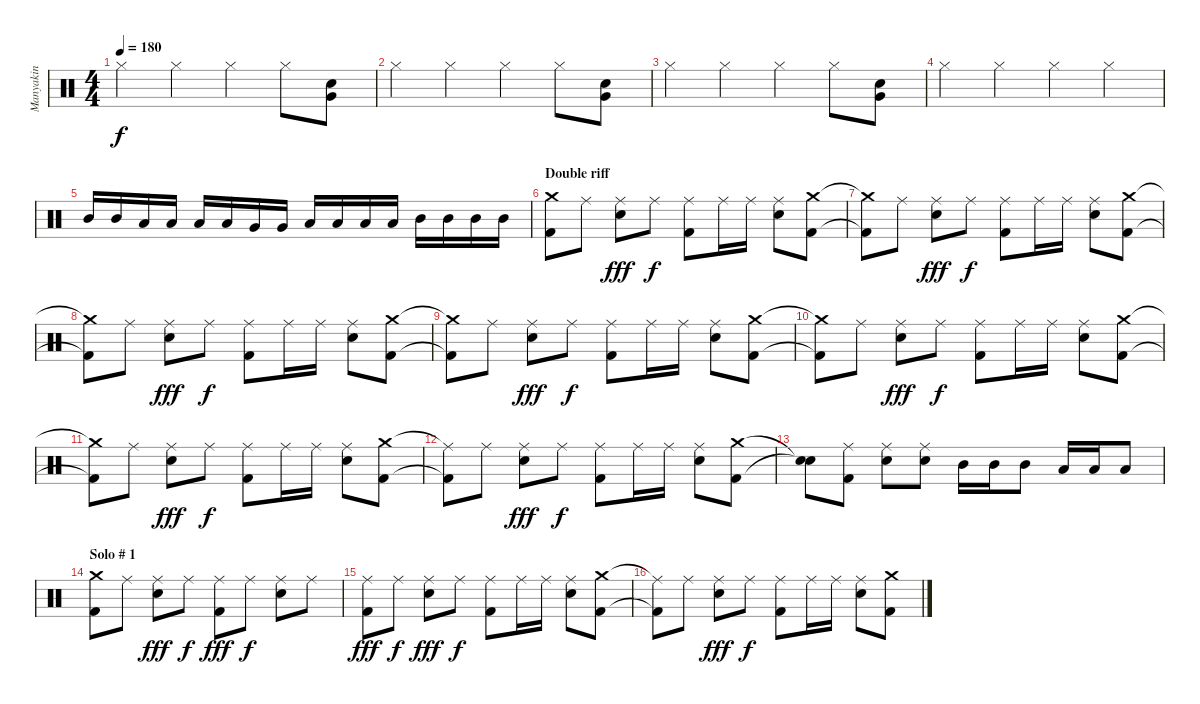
\track ("Manyakin" "Manyakin") {instrument percussion}
\staff {score}
\articulation defaults
\ts (4 4)
\tempo 180
\clef neutral
\ks c "Hi-Hat (closed)".4{dy f} "Hi-Hat (closed)".4 "Hi-Hat (closed)".4 "Hi-Hat (closed)".8
("Snare (hit) 2" "Very Low Tom (hit)").8 |
"Hi-Hat (closed)".4 "Hi-Hat (closed)".4 "Hi-Hat (closed)".4 "Hi-Hat (closed)".8 ("Snare (hit) 2" "Very Low Tom (hit)").8 |
"Hi-Hat (closed)".4 "Hi-Hat (closed)".4 "Hi-Hat (closed)".4 "Hi-Hat (closed)".8 ("Snare (hit) 2" "Very Low Tom (hit)").8 |
"Hi-Hat (closed)".4 "Hi-Hat (closed)".4 "Hi-Hat (closed)".4 "Hi-Hat (closed)".4 |
"Mid Tom (hit)".16 "Mid Tom (hit)".16 "Low Tom (hit)".16 "Low Tom (hit)".16 "Low Tom (hit)".16 "Low Tom (hit)".16 "Very Low Tom (hit)".16 "Very Low Tom (hit)".16 "Low Tom (hit)".16 "Low Tom (hit)".16 "Low Tom (hit)".16 "Low Tom (hit)".16 "Mid Tom (hit)".16 "Mid Tom (hit)".16 "Mid Tom (hit)".16 "Mid Tom (hit)".16 |
\section ("" "Double riff")
("Kick (hit) 2" "Crash medium (hit)").8 "Ride (middle)".8 ("Snare (hit) 2" "Ride (middle)").8{dy fff} "Ride (middle)".8{dy f} ("Kick (hit) 2" "Ride (middle)").8 "Ride (middle)".16 "Ride (middle)".16 ("Snare (hit) 2" "Ride (middle)").8 ("Kick (hit) 2" "Crash medium (hit)").8 |
("Kick (hit) 2"{t} "Crash medium (hit)"{t}).8 "Ride (middle)".8 ("Snare (hit) 2" "Ride (middle)").8{dy fff} "Ride (middle)".8{dy f} ("Kick (hit) 2" "Ride (middle)").8 "Ride (middle)".16 "Ride (middle)".16 ("Snare (hit) 2" "Ride (middle)").8 ("Kick (hit) 2" "Crash medium (hit)").8 |
("Kick (hit) 2"{t} "Crash medium (hit)"{t}).8 "Ride (middle)".8 ("Snare (hit) 2" "Ride (middle)").8{dy fff} "Ride (middle)".8{dy f} ("Kick (hit) 2" "Ride (middle)").8 "Ride (middle)".16 "Ride (middle)".16 ("Snare (hit) 2" "Ride (middle)").8 ("Kick (hit) 2" "Crash medium (hit)").8 |
("Kick (hit) 2"{t} "Crash medium (hit)"{t}).8 "Ride (middle)".8 ("Snare (hit) 2" "Ride (middle)").8{dy fff} "Ride (middle)".8{dy f} ("Kick (hit) 2" "Ride (middle)").8 "Ride (middle)".16 "Ride (middle)".16 ("Snare (hit) 2" "Ride (middle)").8 ("Kick (hit) 2" "Crash medium (hit)").8 |
("Kick (hit) 2"{t} "Crash medium (hit)"{t}).8 "Ride (middle)".8 ("Snare (hit) 2" "Ride (middle)").8{dy fff} "Ride (middle)".8{dy f} ("Kick (hit) 2" "Ride (middle)").8 "Ride (middle)".16 "Ride (middle)".16 ("Snare (hit) 2" "Ride (middle)").8 ("Kick (hit) 2" "Crash medium (hit)").8 |
("Kick (hit) 2"{t} "Crash medium (hit)"{t}).8 "Ride (middle)".8 ("Snare (hit) 2" "Ride (middle)").8{dy fff} "Ride (middle)".8{dy f} ("Kick (hit) 2" "Ride (middle)").8 "Ride (middle)".16 "Ride (middle)".16 ("Snare (hit) 2" "Ride (middle)").8 ("Kick (hit) 2" "Crash medium (hit)").8 |
("Kick (hit) 2"{t} "Ride (middle)"{t}).8 "Ride (middle)".8 ("Snare (hit) 2" "Ride (middle)").8{dy fff} "Ride (middle)".8{dy f} ("Kick (hit) 2" "Ride (middle)").8 "Ride (middle)".16 "Ride (middle)".16 ("Snare (hit) 2" "Ride (middle)").8 ("Kick (hit) 2" "Crash medium (hit)").8 |
("Snare (hit)"{t} "Snare (hit)"{t}).8 ("Kick (hit) 2" "Ride (middle)").8 ("Snare (hit) 2" "Ride (middle)").8 ("Snare (hit) 2" "Ride (middle)").8 "Mid Tom (hit)".16 "Mid Tom (hit)".16 "Mid Tom (hit)".8 "Low Tom (hit)".16 "Low Tom (hit)".16 "Low Tom (hit)".8 |
\section ("" "Solo # 1")
("Kick (hit) 2" "Crash medium (hit)").8 "Ride (middle)".8 ("Snare (hit) 2" "Ride (middle)").8{dy fff} "Ride (middle)".8{dy f} ("Kick (hit) 2" "Ride (middle)").8{dy fff} "Ride (middle)".8{dy f} ("Ride (middle)" "Snare (hit) 2").8 "Ride (middle)".8 |
("Kick (hit) 2" "Ride (middle)").8{dy fff} "Ride (middle)".8{dy f} ("Snare (hit) 2" "Ride (middle)").8{dy fff} "Ride (middle)".8{dy f} ("Kick (hit) 2" "Ride (middle)").8 "Ride (middle)".16 "Ride (middle)".16 ("Snare (hit) 2" "Ride (middle)").8 ("Kick (hit) 2" "Crash medium (hit)").8 |
("Kick (hit) 2"{t} "Ride (middle)"{t}).8 "Ride (middle)".8 ("Snare (hit) 2" "Ride (middle)").8{dy fff} "Ride (middle)".8{dy f} ("Kick (hit) 2" "Ride (middle)").8 "Ride (middle)".16 "Ride (middle)".16 ("Snare (hit) 2" "Ride (middle)").8 ("Kick (hit) 2" "Crash medium (hit)").8
